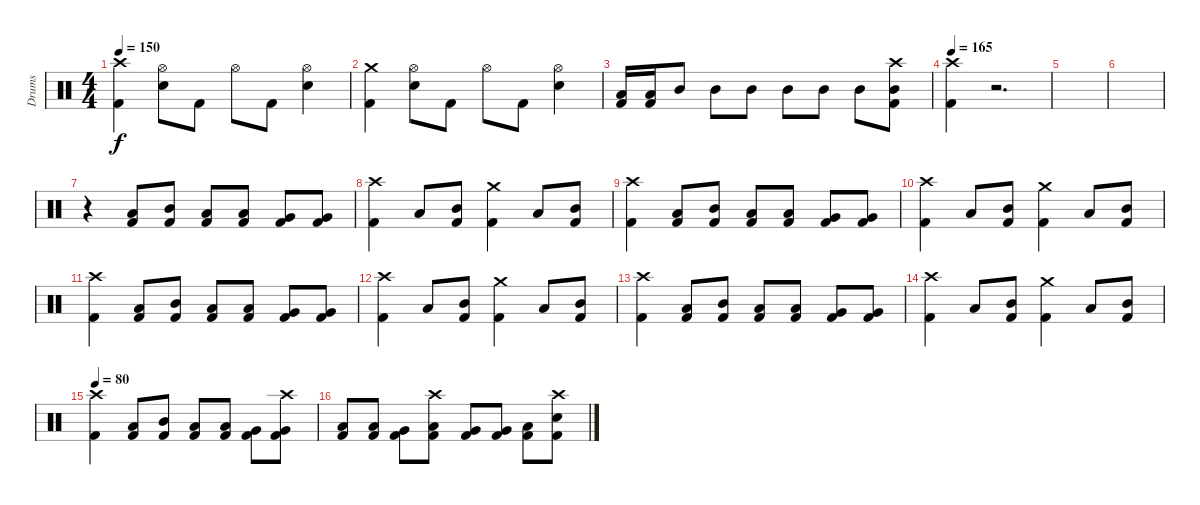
\track ("Drums" "Drums") {instrument percussion}
\staff {score}
\articulation defaults
\ts (4 4)
\tempo 150
\clef neutral
\ks c
("Crash high (hit)" "Kick (hit) 2").4{dy f} ("Hi-Hat (open)" "Electric Snare (hit)").8 "Kick (hit) 2".8 "Hi-Hat (open)".8 "Kick (hit) 2".8 ("Hi-Hat (open)" "Electric Snare (hit)").4 |
("Crash medium (hit)" "Kick (hit) 2").4 ("Hi-Hat (open)" "Electric Snare (hit)").8 "Kick (hit) 2".8 "Hi-Hat (open)".8 "Kick (hit) 2".8 ("Hi-Hat (open)" "Electric Snare (hit)").4 |
("Low Tom (hit)" "Kick (hit) 2").16 ("Low Tom (hit)" "Kick (hit) 2").16 "Mid Tom (hit)".8 "Mid Tom (hit)".8 "Mid Tom (hit)".8 "Mid Tom (hit)".8 "Mid Tom (hit)".8 "Mid Tom (hit)".8 ("Crash high (hit)" "Mid Tom (hit)" "Kick (hit) 2").8 |
\tempo 165
("Crash high (hit)" "Kick (hit) 2").4 r.2{d} |
|
|
r.4 ("Low Tom (hit)" "Kick (hit) 2").8 ("Mid Tom (hit)" "Kick (hit) 2").8 ("Low Tom (hit)" "Kick (hit) 2").8 ("Low Tom (hit)" "Kick (hit) 2").8 ("Very Low Tom (hit)" "Kick (hit) 2").8 ("Very Low Tom (hit)" "Kick (hit) 2").8 |
("Crash high (hit)" "Kick (hit) 2").4 "Low Tom (hit)".8 ("Mid Tom (hit)" "Kick (hit) 2").8 ("Crash medium (hit)" "Kick (hit) 2").4 "Low Tom (hit)".8 ("Mid Tom (hit)" "Kick (hit) 2").8 |
("Crash high (hit)" "Kick (hit) 2").4 ("Low Tom (hit)" "Kick (hit) 2").8 ("Mid Tom (hit)" "Kick (hit) 2").8 ("Low Tom (hit)" "Kick (hit) 2").8 ("Low Tom (hit)" "Kick (hit) 2").8 ("Very Low Tom (hit)" "Kick (hit) 2").8 ("Very Low Tom (hit)" "Kick (hit) 2").8 |
("Crash high (hit)" "Kick (hit) 2").4 "Low Tom (hit)".8 ("Mid Tom (hit)" "Kick (hit) 2").8 ("Crash medium (hit)" "Kick (hit) 2").4 "Low Tom (hit)".8 ("Mid Tom (hit)" "Kick (hit) 2").8 |
("Crash high (hit)" "Kick (hit) 2").4 ("Low Tom (hit)" "Kick (hit) 2").8 ("Mid Tom (hit)" "Kick (hit) 2").8 ("Low Tom (hit)" "Kick (hit) 2").8 ("Low Tom (hit)" "Kick (hit) 2").8 ("Very Low Tom (hit)" "Kick (hit) 2").8 ("Very Low Tom (hit)" "Kick (hit) 2").8 |
("Crash high (hit)" "Kick (hit) 2").4 "Low Tom (hit)".8 ("Mid Tom (hit)" "Kick (hit) 2").8 ("Crash medium (hit)" "Kick (hit) 2").4 "Low Tom (hit)".8 ("Mid Tom (hit)" "Kick (hit) 2").8 |
("Crash high (hit)" "Kick (hit) 2").4 ("Low Tom (hit)" "Kick (hit) 2").8 ("Mid Tom (hit)" "Kick (hit) 2").8 ("Low Tom (hit)" "Kick (hit) 2").8 ("Low Tom (hit)" "Kick (hit) 2").8 ("Very Low Tom (hit)" "Kick (hit) 2").8 ("Very Low Tom (hit)" "Kick (hit) 2").8 |
("Crash high (hit)" "Kick (hit) 2").4 "Low Tom (hit)".8 ("Mid Tom (hit)" "Kick (hit) 2").8 ("Crash medium (hit)" "Kick (hit) 2").4 "Low Tom (hit)".8 ("Mid Tom (hit)" "Kick (hit) 2").8 |
\tempo 80
("Crash high (hit)" "Kick (hit) 2").4 ("Low Tom (hit)" "Kick (hit) 2").8 ("Mid Tom (hit)" "Kick (hit) 2").8 ("Low Tom (hit)" "Kick (hit) 2").8 ("Low Tom (hit)" "Kick (hit) 2").8 ("Very Low Tom (hit)" "Kick (hit) 2").8 ("Crash high (hit)" "Very Low Tom (hit)" "Kick (hit) 2").8 |
("Low Tom (hit)" "Kick (hit) 2").8 ("Low Tom (hit)" "Kick (hit) 2").8 ("Very Low Tom (hit)" "Kick (hit) 2").8 ("Crash high (hit)" "Low Tom (hit)" "Kick (hit) 2").8 ("Very Low Tom (hit)" "Kick (hit) 2").8 ("Very Low Tom (hit)" "Kick (hit) 2").8 ("Low Floor Tom (hit)" "Kick (hit) 2").8 ("Crash high (hit)" "Electric Snare (hit)" "Kick (hit) 2").8
